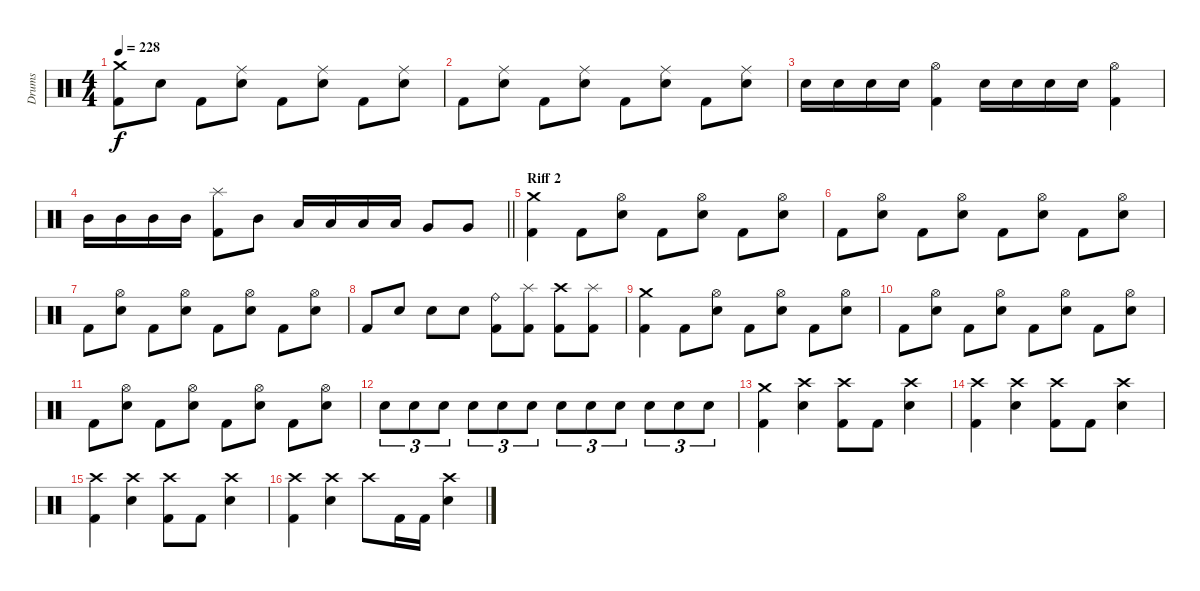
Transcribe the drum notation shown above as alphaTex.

\track ("Drums" "Drums") {instrument percussion}
\staff {score}
\articulation defaults
\ts (4 4)
\tempo 228
\clef neutral
\ks c
("Crash medium (hit)" "Kick (hit) 2").8{dy f} "Electric Snare (hit)".8 "Kick (hit) 2".8 ("Electric Snare (hit)" "Ride (middle)").8 "Kick (hit) 2".8 ("Electric Snare (hit)" "Ride (middle)").8 "Kick (hit) 2".8 ("Electric Snare (hit)" "Ride (middle)").8 |
"Kick (hit) 2".8 ("Electric Snare (hit)" "Ride (middle)").8 "Kick (hit) 2".8 ("Electric Snare (hit)" "Ride (middle)").8 "Kick (hit) 2".8 ("Electric Snare (hit)" "Ride (middle)").8 "Kick (hit) 2".8 ("Electric Snare (hit)" "Ride (middle)").8 |
"Electric Snare (hit)".16 "Electric Snare (hit)".16 "Electric Snare (hit)".16 "Electric Snare (hit)".16 ("Kick (hit) 2" "Hi-Hat (open)").4 "Electric Snare (hit)".16 "Electric Snare (hit)".16 "Electric Snare (hit)".16 "Electric Snare (hit)".16 ("Kick (hit) 2" "Hi-Hat (open)").4 |
\barLineRight lightlight "Mid Tom (hit)".16 "Mid Tom (hit)".16 "Mid Tom (hit)".16 "Mid Tom (hit)".16
("Splash (hit)" "Kick (hit) 2").8 "Mid Tom (hit)".8 "Low Tom (hit)".16 "Low Tom (hit)".16 "Low Tom (hit)".16 "Low Tom (hit)".16 "Very Low Tom (hit)".8 "Very Low Tom (hit)".8 |
\section ("" "Riff 2")
("Crash medium (hit)" "Kick (hit) 2").4 "Kick (hit) 2".8 ("Hi-Hat (open)" "Electric Snare (hit)").8 "Kick (hit) 2".8 ("Hi-Hat (open)" "Electric Snare (hit)").8 "Kick (hit) 2".8 ("Hi-Hat (open)" "Electric Snare (hit)").8 |
"Kick (hit) 2".8 ("Hi-Hat (open)" "Electric Snare (hit)").8 "Kick (hit) 2".8 ("Hi-Hat (open)" "Electric Snare (hit)").8 "Kick (hit) 2".8 ("Hi-Hat (open)" "Electric Snare (hit)").8 "Kick (hit) 2".8 ("Hi-Hat (open)" "Electric Snare (hit)").8 |
"Kick (hit) 2".8 ("Hi-Hat (open)" "Electric Snare (hit)").8 "Kick (hit) 2".8 ("Hi-Hat (open)" "Electric Snare (hit)").8 "Kick (hit) 2".8 ("Hi-Hat (open)" "Electric Snare (hit)").8 "Kick (hit) 2".8 ("Hi-Hat (open)" "Electric Snare (hit)").8 |
"Kick (hit) 2".8 "Electric Snare (hit)".8 "Electric Snare (hit)".8 "Electric Snare (hit)".8 ("Kick (hit) 2" "Ride (bell)").8 ("Kick (hit) 2" "Splash (hit)").8 ("Crash high (hit)" "Kick (hit) 2").8 ("Splash (hit)" "Kick (hit) 2").8 |
("Crash medium (hit)" "Kick (hit) 2").4 "Kick (hit) 2".8 ("Hi-Hat (open)" "Electric Snare (hit)").8 "Kick (hit) 2".8 ("Hi-Hat (open)" "Electric Snare (hit)").8 "Kick (hit) 2".8 ("Hi-Hat (open)" "Electric Snare (hit)").8 |
"Kick (hit) 2".8 ("Hi-Hat (open)" "Electric Snare (hit)").8 "Kick (hit) 2".8 ("Hi-Hat (open)" "Electric Snare (hit)").8 "Kick (hit) 2".8 ("Hi-Hat (open)" "Electric Snare (hit)").8 "Kick (hit) 2".8 ("Hi-Hat (open)" "Electric Snare (hit)").8 |
"Kick (hit) 2".8 ("Hi-Hat (open)" "Electric Snare (hit)").8 "Kick (hit) 2".8 ("Hi-Hat (open)" "Electric Snare (hit)").8 "Kick (hit) 2".8 ("Hi-Hat (open)" "Electric Snare (hit)").8 "Kick (hit) 2".8 ("Hi-Hat (open)" "Electric Snare (hit)").8 |
"Electric Snare (hit)".8{tu (3 2)} "Electric Snare (hit)".8{tu (3 2)} "Electric Snare (hit)".8{tu (3 2)} "Electric Snare (hit)".8{tu (3 2)} "Electric Snare (hit)".8{tu (3 2)} "Electric Snare (hit)".8{tu (3 2)} "Electric Snare (hit)".8{tu (3 2)} "Electric Snare (hit)".8{tu (3 2)} "Electric Snare (hit)".8{tu (3 2)} "Electric Snare (hit)".8{tu (3 2)} "Electric Snare (hit)".8{tu (3 2)} "Electric Snare (hit)".8{tu (3 2)} |
("Crash medium (hit)" "Kick (hit) 2").4 ("Electric Snare (hit)" "Crash high (hit)").4 ("Crash high (hit)" "Kick (hit) 2").8 "Kick (hit) 2".8 ("Crash high (hit)" "Electric Snare (hit)").4 |
("Crash high (hit)" "Kick (hit) 2").4 ("Electric Snare (hit)" "Crash high (hit)").4 ("Crash high (hit)" "Kick (hit) 2").8 "Kick (hit) 2".8 ("Crash high (hit)" "Electric Snare (hit)").4 |
("Crash high (hit)" "Kick (hit) 2").4 ("Electric Snare (hit)" "Crash high (hit)").4 ("Crash high (hit)" "Kick (hit) 2").8 "Kick (hit) 2".8 ("Crash high (hit)" "Electric Snare (hit)").4 |
("Crash high (hit)" "Kick (hit) 2").4 ("Electric Snare (hit)" "Crash high (hit)").4 "Crash high (hit)".8 "Kick (hit) 2".16 "Kick (hit) 2".16 ("Crash high (hit)" "Electric Snare (hit)").4
